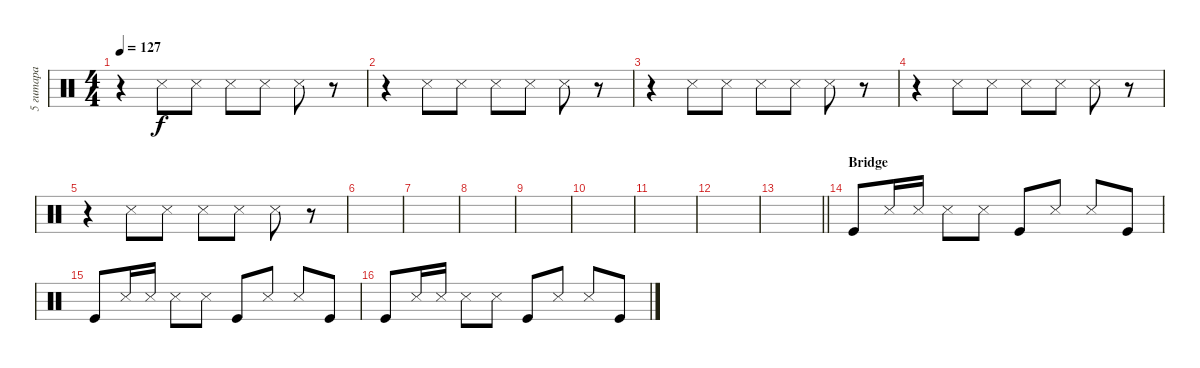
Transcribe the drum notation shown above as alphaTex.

\track ("5 гитара" "5 гитара") {instrument percussion}
\staff {score}
\articulation defaults
\ts (4 4)
\tempo 127
\clef neutral
\ks c
r.4{dy f} "Snare (side stick) 3".8 "Snare (side stick) 3".8 "Snare (side stick) 3".8 "Snare (side stick) 3".8 "Snare (side stick) 3".8 r.8 |
r.4 "Snare (side stick) 3".8 "Snare (side stick) 3".8 "Snare (side stick) 3".8 "Snare (side stick) 3".8 "Snare (side stick) 3".8 r.8 |
r.4 "Snare (side stick) 3".8 "Snare (side stick) 3".8 "Snare (side stick) 3".8 "Snare (side stick) 3".8 "Snare (side stick) 3".8 r.8 |
r.4 "Snare (side stick) 3".8 "Snare (side stick) 3".8 "Snare (side stick) 3".8 "Snare (side stick) 3".8 "Snare (side stick) 3".8 r.8 |
r.4 "Snare (side stick) 3".8 "Snare (side stick) 3".8 "Snare (side stick) 3".8 "Snare (side stick) 3".8 "Snare (side stick) 3".8 r.8 |
|
|
|
|
|
|
|
\barLineRight lightlight
|
\section ("" "Bridge")
"Kick (hit)".8 "Snare (side stick) 3".16 "Snare (side stick) 3".16 "Snare (side stick) 3".8 "Snare (side stick) 3".8 "Kick (hit)".8 "Snare (side stick) 3".8 "Snare (side stick) 3".8 "Kick (hit)".8 |
"Kick (hit)".8 "Snare (side stick) 3".16 "Snare (side stick) 3".16 "Snare (side stick) 3".8 "Snare (side stick) 3".8 "Kick (hit)".8 "Snare (side stick) 3".8 "Snare (side stick) 3".8 "Kick (hit)".8 |
"Kick (hit)".8 "Snare (side stick) 3".16 "Snare (side stick) 3".16 "Snare (side stick) 3".8 "Snare (side stick) 3".8 "Kick (hit)".8 "Snare (side stick) 3".8 "Snare (side stick) 3".8 "Kick (hit)".8
